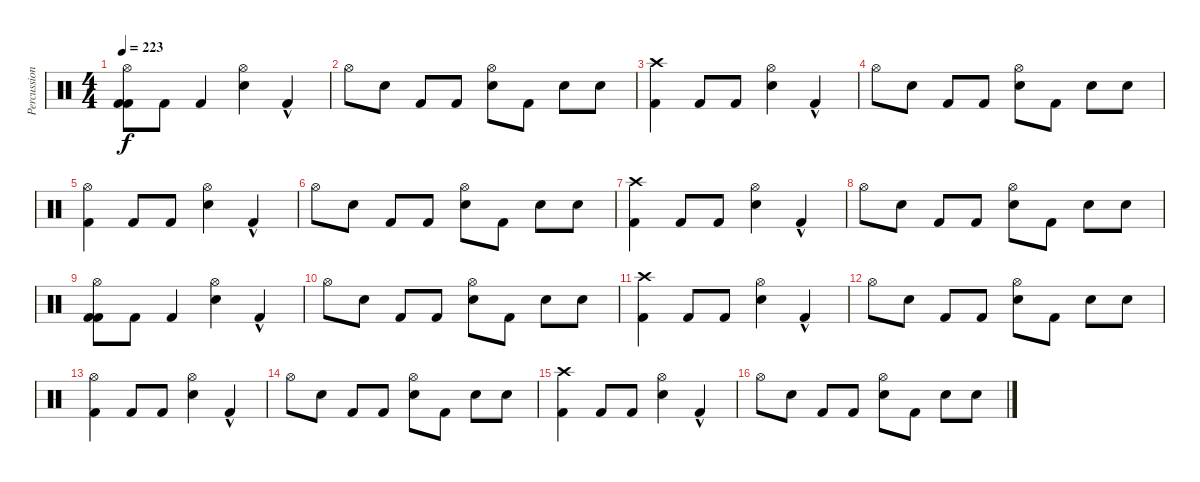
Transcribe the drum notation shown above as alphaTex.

\track ("Percussion" "Percussion") {instrument percussion}
\staff {score}
\articulation defaults
\ts (4 4)
\tempo 223
\clef neutral
\ks c
("Hi-Hat (open)" "Kick (hit) 2" "Kick (hit) 2").8{dy f} "Kick (hit) 2".8 "Kick (hit) 2".4 ("Hi-Hat (open)" "Electric Snare (hit)").4 "Kick (hit) 2"{hac}.4 |
"Hi-Hat (open)".8 "Electric Snare (hit)".8 "Kick (hit) 2".8 "Kick (hit) 2".8 ("Hi-Hat (open)" "Electric Snare (hit)").8 "Kick (hit) 2".8 "Electric Snare (hit)".8 "Electric Snare (hit)".8 |
("Crash high (hit)" "Kick (hit) 2").4 "Kick (hit) 2".8 "Kick (hit) 2".8 ("Hi-Hat (open)" "Electric Snare (hit)").4 "Kick (hit) 2"{hac}.4 |
"Hi-Hat (open)".8 "Electric Snare (hit)".8 "Kick (hit) 2".8 "Kick (hit) 2".8 ("Hi-Hat (open)" "Electric Snare (hit)").8 "Kick (hit) 2".8 "Electric Snare (hit)".8 "Electric Snare (hit)".8 |
("Hi-Hat (open)" "Kick (hit) 2").4 "Kick (hit) 2".8 "Kick (hit) 2".8 ("Hi-Hat (open)" "Electric Snare (hit)").4 "Kick (hit) 2"{hac}.4 |
"Hi-Hat (open)".8 "Electric Snare (hit)".8 "Kick (hit) 2".8 "Kick (hit) 2".8 ("Hi-Hat (open)" "Electric Snare (hit)").8 "Kick (hit) 2".8 "Electric Snare (hit)".8 "Electric Snare (hit)".8 |
("Crash high (hit)" "Kick (hit) 2").4 "Kick (hit) 2".8 "Kick (hit) 2".8 ("Hi-Hat (open)" "Electric Snare (hit)").4 "Kick (hit) 2"{hac}.4 |
"Hi-Hat (open)".8 "Electric Snare (hit)".8 "Kick (hit) 2".8 "Kick (hit) 2".8 ("Hi-Hat (open)" "Electric Snare (hit)").8 "Kick (hit) 2".8 "Electric Snare (hit)".8 "Electric Snare (hit)".8 |
("Hi-Hat (open)" "Kick (hit) 2" "Kick (hit) 2").8 "Kick (hit) 2".8 "Kick (hit) 2".4 ("Hi-Hat (open)" "Electric Snare (hit)").4 "Kick (hit) 2"{hac}.4 |
"Hi-Hat (open)".8 "Electric Snare (hit)".8 "Kick (hit) 2".8 "Kick (hit) 2".8 ("Hi-Hat (open)" "Electric Snare (hit)").8 "Kick (hit) 2".8 "Electric Snare (hit)".8 "Electric Snare (hit)".8 |
("Crash high (hit)" "Kick (hit) 2").4 "Kick (hit) 2".8 "Kick (hit) 2".8 ("Hi-Hat (open)" "Electric Snare (hit)").4 "Kick (hit) 2"{hac}.4 |
"Hi-Hat (open)".8 "Electric Snare (hit)".8 "Kick (hit) 2".8 "Kick (hit) 2".8 ("Hi-Hat (open)" "Electric Snare (hit)").8 "Kick (hit) 2".8 "Electric Snare (hit)".8 "Electric Snare (hit)".8 |
("Hi-Hat (open)" "Kick (hit) 2").4 "Kick (hit) 2".8 "Kick (hit) 2".8 ("Hi-Hat (open)" "Electric Snare (hit)").4 "Kick (hit) 2"{hac}.4 |
"Hi-Hat (open)".8 "Electric Snare (hit)".8 "Kick (hit) 2".8 "Kick (hit) 2".8 ("Hi-Hat (open)" "Electric Snare (hit)").8 "Kick (hit) 2".8 "Electric Snare (hit)".8 "Electric Snare (hit)".8 |
("Crash high (hit)" "Kick (hit) 2").4 "Kick (hit) 2".8 "Kick (hit) 2".8 ("Hi-Hat (open)" "Electric Snare (hit)").4 "Kick (hit) 2"{hac}.4 |
"Hi-Hat (open)".8 "Electric Snare (hit)".8 "Kick (hit) 2".8 "Kick (hit) 2".8 ("Hi-Hat (open)" "Electric Snare (hit)").8 "Kick (hit) 2".8 "Electric Snare (hit)".8 "Electric Snare (hit)".8
